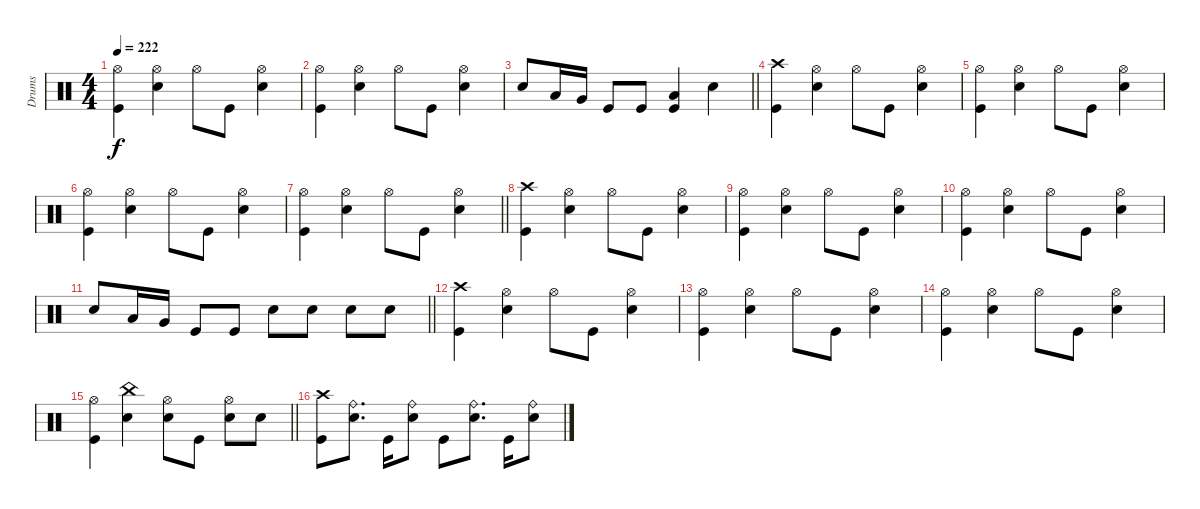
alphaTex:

\track ("Drums" "Drums") {instrument percussion}
\staff
\articulation defaults
\ts (4 4)
\tempo 222
\clef neutral
\ks c
("Hi-Hat (open)" "Kick (hit)").4{dy f} ("Hi-Hat (open)" "Electric Snare (hit)").4 "Hi-Hat (open)".8 "Kick (hit)".8 ("Hi-Hat (open)" "Electric Snare (hit)").4 |
("Hi-Hat (open)" "Kick (hit)").4 ("Hi-Hat (open)" "Electric Snare (hit)").4 "Hi-Hat (open)".8 "Kick (hit)".8 ("Hi-Hat (open)" "Electric Snare (hit)").4 |
\barLineRight lightlight "Electric Snare (hit)".8 "Low Tom (hit)".16 "Very Low Tom (hit)".16 "Kick (hit)".8 "Kick (hit)".8
("Low Floor Tom (hit)" "Kick (hit)").4 "Electric Snare (hit)".4 |
("Crash high (hit)" "Kick (hit)").4 ("Hi-Hat (open)" "Electric Snare (hit)").4 "Hi-Hat (open)".8 "Kick (hit)".8 ("Hi-Hat (open)" "Electric Snare (hit)").4 |
("Hi-Hat (open)" "Kick (hit)").4 ("Hi-Hat (open)" "Electric Snare (hit)").4 "Hi-Hat (open)".8 "Kick (hit)".8 ("Hi-Hat (open)" "Electric Snare (hit)").4 |
("Hi-Hat (open)" "Kick (hit)").4 ("Hi-Hat (open)" "Electric Snare (hit)").4 "Hi-Hat (open)".8 "Kick (hit)".8 ("Hi-Hat (open)" "Electric Snare (hit)").4 |
\barLineRight lightlight
("Hi-Hat (open)" "Kick (hit)").4 ("Hi-Hat (open)" "Electric Snare (hit)").4 "Hi-Hat (open)".8 "Kick (hit)".8 ("Hi-Hat (open)" "Electric Snare (hit)").4 |
("Crash high (hit)" "Kick (hit)").4 ("Hi-Hat (open)" "Electric Snare (hit)").4 "Hi-Hat (open)".8 "Kick (hit)".8 ("Hi-Hat (open)" "Electric Snare (hit)").4 |
("Hi-Hat (open)" "Kick (hit)").4 ("Hi-Hat (open)" "Electric Snare (hit)").4 "Hi-Hat (open)".8 "Kick (hit)".8 ("Hi-Hat (open)" "Electric Snare (hit)").4 |
("Hi-Hat (open)" "Kick (hit)").4 ("Hi-Hat (open)" "Electric Snare (hit)").4 "Hi-Hat (open)".8 "Kick (hit)".8 ("Hi-Hat (open)" "Electric Snare (hit)").4 |
\barLineRight lightlight "Electric Snare (hit)".8 "Low Tom (hit)".16 "Very Low Tom (hit)".16 "Kick (hit)".8 "Kick (hit)".8 "Electric Snare (hit)".8 "Electric Snare (hit)".8 "Electric Snare (hit)".8 "Electric Snare (hit)".8
|
("Crash high (hit)" "Kick (hit)").4 ("Hi-Hat (open)" "Electric Snare (hit)").4 "Hi-Hat (open)".8 "Kick (hit)".8 ("Hi-Hat (open)" "Electric Snare (hit)").4 |
("Hi-Hat (open)" "Kick (hit)").4 ("Hi-Hat (open)" "Electric Snare (hit)").4 "Hi-Hat (open)".8 "Kick (hit)".8 ("Hi-Hat (open)" "Electric Snare (hit)").4 |
("Hi-Hat (open)" "Kick (hit)").4 ("Hi-Hat (open)" "Electric Snare (hit)").4 "Hi-Hat (open)".8 "Kick (hit)".8 ("Hi-Hat (open)" "Electric Snare (hit)").4 |
\barLineRight lightlight
("Hi-Hat (open)" "Kick (hit)").4 ("China (hit)" "Electric Snare (hit)").4 ("Hi-Hat (open)" "Electric Snare (hit)").8 "Kick (hit)".8 ("Hi-Hat (open)" "Electric Snare (hit)").8 "Electric Snare (hit)".8 |
("Crash high (hit)" "Kick (hit)").8 ("Ride (bell)" "Electric Snare (hit)").8{d} "Kick (hit)".16 ("Ride (bell)" "Electric Snare (hit)").8 "Kick (hit)".8 ("Ride (bell)" "Electric Snare (hit)").8{d} "Kick (hit)".16 ("Ride (bell)" "Electric Snare (hit)").8
